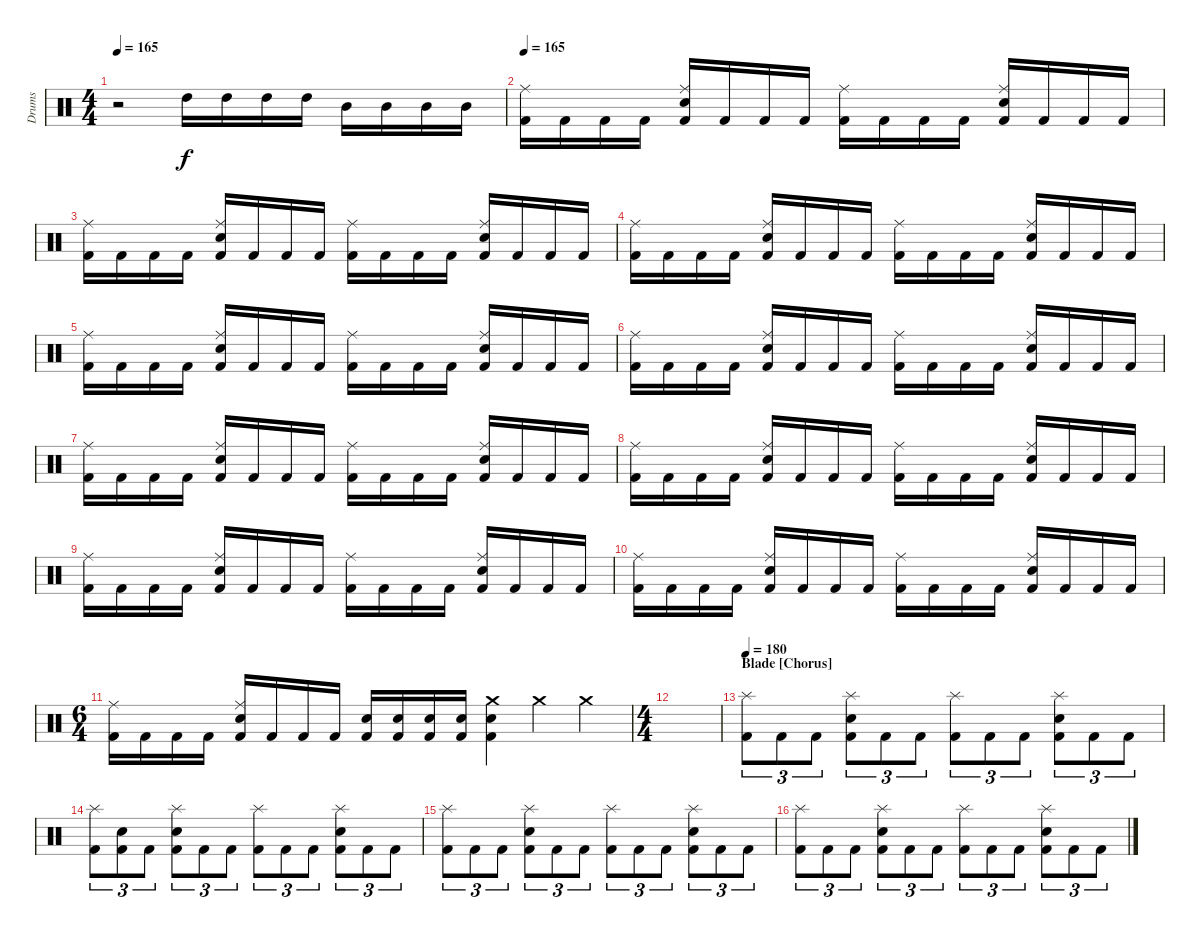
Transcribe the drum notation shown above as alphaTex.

\track ("Drums" "Drums") {instrument percussion}
\staff {score}
\articulation defaults
\ts (4 4)
\tempo 165
\clef neutral
\ks c
r.2{dy f} "High Tom (hit)".16 "High Tom (hit)".16 "High Tom (hit)".16 "High Tom (hit)".16 "Mid Tom (hit)".16 "Mid Tom (hit)".16 "Mid Tom (hit)".16 "Mid Tom (hit)".16 |
\tempo 165
("Kick (hit) 2" "Ride (middle)").16 "Kick (hit) 2".16 "Kick (hit) 2".16 "Kick (hit) 2".16 ("Kick (hit) 2" "Electric Snare (hit)" "Ride (middle)").16 "Kick (hit) 2".16 "Kick (hit) 2".16 "Kick (hit) 2".16 ("Kick (hit) 2" "Ride (middle)").16 "Kick (hit) 2".16 "Kick (hit) 2".16 "Kick (hit) 2".16 ("Kick (hit) 2" "Electric Snare (hit)" "Ride (middle)").16 "Kick (hit) 2".16 "Kick (hit) 2".16 "Kick (hit) 2".16 |
("Kick (hit) 2" "Ride (middle)").16 "Kick (hit) 2".16 "Kick (hit) 2".16 "Kick (hit) 2".16 ("Kick (hit) 2" "Electric Snare (hit)" "Ride (middle)").16 "Kick (hit) 2".16 "Kick (hit) 2".16 "Kick (hit) 2".16 ("Kick (hit) 2" "Ride (middle)").16 "Kick (hit) 2".16 "Kick (hit) 2".16 "Kick (hit) 2".16 ("Kick (hit) 2" "Electric Snare (hit)" "Ride (middle)").16 "Kick (hit) 2".16 "Kick (hit) 2".16 "Kick (hit) 2".16 |
("Kick (hit) 2" "Ride (middle)").16 "Kick (hit) 2".16 "Kick (hit) 2".16 "Kick (hit) 2".16 ("Kick (hit) 2" "Electric Snare (hit)" "Ride (middle)").16 "Kick (hit) 2".16 "Kick (hit) 2".16 "Kick (hit) 2".16 ("Kick (hit) 2" "Ride (middle)").16 "Kick (hit) 2".16 "Kick (hit) 2".16 "Kick (hit) 2".16 ("Kick (hit) 2" "Electric Snare (hit)" "Ride (middle)").16 "Kick (hit) 2".16 "Kick (hit) 2".16 "Kick (hit) 2".16 |
("Kick (hit) 2" "Ride (middle)").16 "Kick (hit) 2".16 "Kick (hit) 2".16 "Kick (hit) 2".16 ("Kick (hit) 2" "Electric Snare (hit)" "Ride (middle)").16 "Kick (hit) 2".16 "Kick (hit) 2".16 "Kick (hit) 2".16 ("Kick (hit) 2" "Ride (middle)").16 "Kick (hit) 2".16 "Kick (hit) 2".16 "Kick (hit) 2".16 ("Kick (hit) 2" "Electric Snare (hit)" "Ride (middle)").16 "Kick (hit) 2".16 "Kick (hit) 2".16 "Kick (hit) 2".16 |
("Kick (hit) 2" "Ride (middle)").16 "Kick (hit) 2".16 "Kick (hit) 2".16 "Kick (hit) 2".16 ("Kick (hit) 2" "Electric Snare (hit)" "Ride (middle)").16 "Kick (hit) 2".16 "Kick (hit) 2".16 "Kick (hit) 2".16 ("Kick (hit) 2" "Ride (middle)").16 "Kick (hit) 2".16 "Kick (hit) 2".16 "Kick (hit) 2".16 ("Kick (hit) 2" "Electric Snare (hit)" "Ride (middle)").16 "Kick (hit) 2".16 "Kick (hit) 2".16 "Kick (hit) 2".16 |
("Kick (hit) 2" "Ride (middle)").16 "Kick (hit) 2".16 "Kick (hit) 2".16 "Kick (hit) 2".16 ("Kick (hit) 2" "Electric Snare (hit)" "Ride (middle)").16 "Kick (hit) 2".16 "Kick (hit) 2".16 "Kick (hit) 2".16 ("Kick (hit) 2" "Ride (middle)").16 "Kick (hit) 2".16 "Kick (hit) 2".16 "Kick (hit) 2".16 ("Kick (hit) 2" "Electric Snare (hit)" "Ride (middle)").16 "Kick (hit) 2".16 "Kick (hit) 2".16 "Kick (hit) 2".16 |
("Kick (hit) 2" "Ride (middle)").16 "Kick (hit) 2".16 "Kick (hit) 2".16 "Kick (hit) 2".16 ("Kick (hit) 2" "Electric Snare (hit)" "Ride (middle)").16 "Kick (hit) 2".16 "Kick (hit) 2".16 "Kick (hit) 2".16 ("Kick (hit) 2" "Ride (middle)").16 "Kick (hit) 2".16 "Kick (hit) 2".16 "Kick (hit) 2".16 ("Kick (hit) 2" "Electric Snare (hit)" "Ride (middle)").16 "Kick (hit) 2".16 "Kick (hit) 2".16 "Kick (hit) 2".16 |
("Kick (hit) 2" "Ride (middle)").16 "Kick (hit) 2".16 "Kick (hit) 2".16 "Kick (hit) 2".16 ("Kick (hit) 2" "Electric Snare (hit)" "Ride (middle)").16 "Kick (hit) 2".16 "Kick (hit) 2".16 "Kick (hit) 2".16 ("Kick (hit) 2" "Ride (middle)").16 "Kick (hit) 2".16 "Kick (hit) 2".16 "Kick (hit) 2".16 ("Kick (hit) 2" "Electric Snare (hit)" "Ride (middle)").16 "Kick (hit) 2".16 "Kick (hit) 2".16 "Kick (hit) 2".16 |
("Kick (hit) 2" "Ride (middle)").16 "Kick (hit) 2".16 "Kick (hit) 2".16 "Kick (hit) 2".16 ("Kick (hit) 2" "Electric Snare (hit)" "Ride (middle)").16 "Kick (hit) 2".16 "Kick (hit) 2".16 "Kick (hit) 2".16 ("Kick (hit) 2" "Ride (middle)").16 "Kick (hit) 2".16 "Kick (hit) 2".16 "Kick (hit) 2".16 ("Kick (hit) 2" "Electric Snare (hit)" "Ride (middle)").16 "Kick (hit) 2".16 "Kick (hit) 2".16 "Kick (hit) 2".16 |
\ts (6 4)
("Kick (hit) 2" "Ride (middle)").16 "Kick (hit) 2".16 "Kick (hit) 2".16 "Kick (hit) 2".16 ("Kick (hit) 2" "Electric Snare (hit)" "Ride (middle)").16 "Kick (hit) 2".16 "Kick (hit) 2".16 "Kick (hit) 2".16 ("Kick (hit) 2" "Electric Snare (hit)").16 ("Kick (hit) 2" "Electric Snare (hit)").16 ("Kick (hit) 2" "Electric Snare (hit)").16 ("Kick (hit) 2" "Electric Snare (hit)").16 ("Kick (hit) 2" "Electric Snare (hit)" "Crash medium (hit)").4 "Crash medium (hit)".4 "Crash medium (hit)".4 |
\ts (4 4)
|
\section ("" "Blade [Chorus]")
\tempo 180
("Splash (hit)" "Kick (hit) 2").8{tu (3 2)} "Kick (hit) 2".8{tu (3 2)} "Kick (hit) 2".8{tu (3 2)} ("Splash (hit)" "Electric Snare (hit)" "Kick (hit) 2").8{tu (3 2)} "Kick (hit) 2".8{tu (3 2)} "Kick (hit) 2".8{tu (3 2)} ("Splash (hit)" "Kick (hit) 2").8{tu (3 2)} "Kick (hit) 2".8{tu (3 2)} "Kick (hit) 2".8{tu (3 2)} ("Splash (hit)" "Electric Snare (hit)" "Kick (hit) 2").8{tu (3 2)} "Kick (hit) 2".8{tu (3 2)} "Kick (hit) 2".8{tu (3 2)} |
("Splash (hit)" "Kick (hit) 2").8{tu (3 2)} ("Snare (hit)" "Kick (hit) 2").8{tu (3 2)} "Kick (hit) 2".8{tu (3 2)} ("Splash (hit)" "Electric Snare (hit)" "Kick (hit) 2").8{tu (3 2)} "Kick (hit) 2".8{tu (3 2)} "Kick (hit) 2".8{tu (3 2)} ("Splash (hit)" "Kick (hit) 2").8{tu (3 2)} "Kick (hit) 2".8{tu (3 2)} "Kick (hit) 2".8{tu (3 2)} ("Splash (hit)" "Electric Snare (hit)" "Kick (hit) 2").8{tu (3 2)} "Kick (hit) 2".8{tu (3 2)} "Kick (hit) 2".8{tu (3 2)} |
("Splash (hit)" "Kick (hit) 2").8{tu (3 2)} "Kick (hit) 2".8{tu (3 2)} "Kick (hit) 2".8{tu (3 2)} ("Splash (hit)" "Electric Snare (hit)" "Kick (hit) 2").8{tu (3 2)} "Kick (hit) 2".8{tu (3 2)} "Kick (hit) 2".8{tu (3 2)} ("Splash (hit)" "Kick (hit) 2").8{tu (3 2)} "Kick (hit) 2".8{tu (3 2)} "Kick (hit) 2".8{tu (3 2)} ("Splash (hit)" "Electric Snare (hit)" "Kick (hit) 2").8{tu (3 2)} "Kick (hit) 2".8{tu (3 2)} "Kick (hit) 2".8{tu (3 2)} |
("Splash (hit)" "Kick (hit) 2").8{tu (3 2)} "Kick (hit) 2".8{tu (3 2)} "Kick (hit) 2".8{tu (3 2)} ("Splash (hit)" "Electric Snare (hit)" "Kick (hit) 2").8{tu (3 2)} "Kick (hit) 2".8{tu (3 2)} "Kick (hit) 2".8{tu (3 2)} ("Splash (hit)" "Kick (hit) 2").8{tu (3 2)} "Kick (hit) 2".8{tu (3 2)} "Kick (hit) 2".8{tu (3 2)} ("Splash (hit)" "Electric Snare (hit)" "Kick (hit) 2").8{tu (3 2)} "Kick (hit) 2".8{tu (3 2)} "Kick (hit) 2".8{tu (3 2)}
